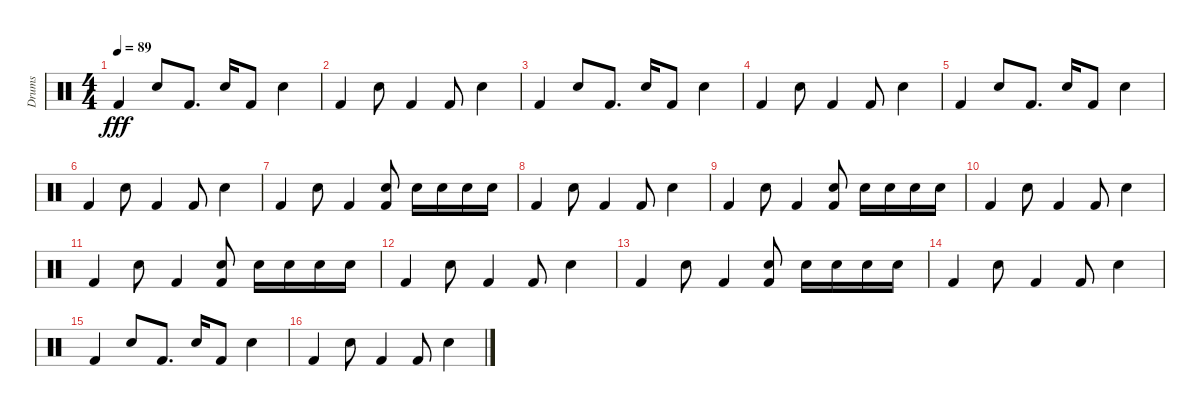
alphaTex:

\track ("Drums" "Drums") {instrument percussion}
\staff {score}
\articulation defaults
\ts (4 4)
\tempo 89
\clef neutral
\ks c "Kick (hit) 2".4{dy fff} "Electric Snare (hit)".8 "Kick (hit) 2".8{d} "Electric Snare (hit)".16 "Kick (hit) 2".8 "Electric Snare (hit)".4
|
"Kick (hit) 2".4 "Electric Snare (hit)".8 "Kick (hit) 2".4 "Kick (hit) 2".8 "Electric Snare (hit)".4 |
"Kick (hit) 2".4 "Electric Snare (hit)".8 "Kick (hit) 2".8{d} "Electric Snare (hit)".16 "Kick (hit) 2".8 "Electric Snare (hit)".4 |
"Kick (hit) 2".4 "Electric Snare (hit)".8 "Kick (hit) 2".4 "Kick (hit) 2".8 "Electric Snare (hit)".4 |
"Kick (hit) 2".4 "Electric Snare (hit)".8 "Kick (hit) 2".8{d} "Electric Snare (hit)".16 "Kick (hit) 2".8 "Electric Snare (hit)".4 |
"Kick (hit) 2".4 "Electric Snare (hit)".8 "Kick (hit) 2".4 "Kick (hit) 2".8 "Electric Snare (hit)".4 |
"Kick (hit) 2".4 "Electric Snare (hit)".8 "Kick (hit) 2".4 ("Electric Snare (hit)" "Kick (hit) 2").8 "Electric Snare (hit)".16 "Electric Snare (hit)".16 "Electric Snare (hit)".16 "Electric Snare (hit)".16 |
"Kick (hit) 2".4 "Electric Snare (hit)".8 "Kick (hit) 2".4 "Kick (hit) 2".8 "Electric Snare (hit)".4 |
"Kick (hit) 2".4 "Electric Snare (hit)".8 "Kick (hit) 2".4 ("Electric Snare (hit)" "Kick (hit) 2").8 "Electric Snare (hit)".16 "Electric Snare (hit)".16 "Electric Snare (hit)".16 "Electric Snare (hit)".16 |
"Kick (hit) 2".4 "Electric Snare (hit)".8 "Kick (hit) 2".4 "Kick (hit) 2".8 "Electric Snare (hit)".4 |
"Kick (hit) 2".4 "Electric Snare (hit)".8 "Kick (hit) 2".4 ("Electric Snare (hit)" "Kick (hit) 2").8 "Electric Snare (hit)".16 "Electric Snare (hit)".16 "Electric Snare (hit)".16 "Electric Snare (hit)".16 |
"Kick (hit) 2".4 "Electric Snare (hit)".8 "Kick (hit) 2".4 "Kick (hit) 2".8 "Electric Snare (hit)".4 |
"Kick (hit) 2".4 "Electric Snare (hit)".8 "Kick (hit) 2".4 ("Electric Snare (hit)" "Kick (hit) 2").8 "Electric Snare (hit)".16 "Electric Snare (hit)".16 "Electric Snare (hit)".16 "Electric Snare (hit)".16 |
"Kick (hit) 2".4 "Electric Snare (hit)".8 "Kick (hit) 2".4 "Kick (hit) 2".8 "Electric Snare (hit)".4 |
"Kick (hit) 2".4 "Electric Snare (hit)".8 "Kick (hit) 2".8{d} "Electric Snare (hit)".16 "Kick (hit) 2".8 "Electric Snare (hit)".4 |
"Kick (hit) 2".4 "Electric Snare (hit)".8 "Kick (hit) 2".4 "Kick (hit) 2".8 "Electric Snare (hit)".4
